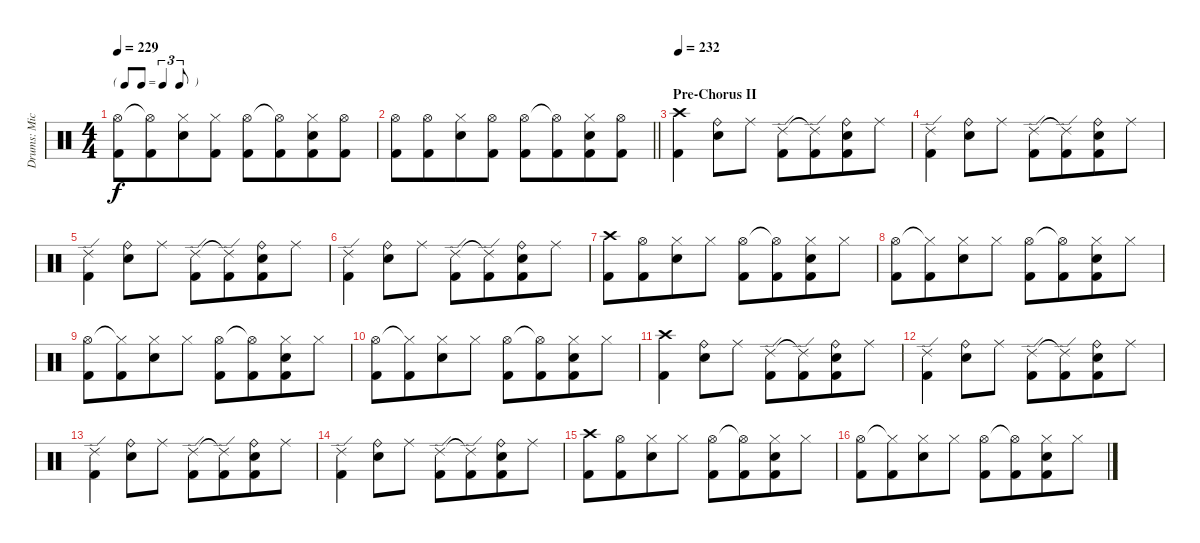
\track ("Drums: Mick" "Drums: Mic") {instrument percussion}
\staff {score}
\articulation defaults
\ts (4 4)
\tf triplet8th
\tempo 229
\clef neutral
\ks c
("Hi-Hat (open)" "Kick (hit) 2").8{dy f} ("Hi-Hat (open)"{t} "Kick (hit) 2").8{beam merge} ("Hi-Hat (closed)" "Snare (hit) 2").8 ("Hi-Hat (closed)" "Kick (hit) 2").8 ("Hi-Hat (open)" "Kick (hit) 2").8 ("Hi-Hat (open)"{t} "Kick (hit) 2").8{beam merge} ("Hi-Hat (closed)" "Snare (hit) 2" "Kick (hit) 2").8 ("Hi-Hat (open)" "Kick (hit) 2").8 |
\barLineRight lightlight
("Hi-Hat (open)" "Kick (hit) 2").8 ("Hi-Hat (open)" "Kick (hit) 2").8{beam merge} ("Hi-Hat (closed)" "Snare (hit) 2").8 ("Hi-Hat (open)" "Kick (hit) 2").8 ("Hi-Hat (open)" "Kick (hit) 2").8 ("Hi-Hat (open)"{t} "Kick (hit) 2").8{beam merge} ("Hi-Hat (closed)" "Snare (hit) 2" "Kick (hit) 2").8 ("Hi-Hat (open)" "Kick (hit) 2").8 |
\section ("" "Pre-Chorus II")
\tempo 232
("Crash high (hit)" "Kick (hit) 2").4{beam merge} ("Ride (bell)" "Snare (hit) 2").8 "Ride (middle)".8 ("Ride (edge) 2" "Kick (hit) 2").8 ("Ride (edge) 2"{t} "Kick (hit) 2").8{beam merge} ("Ride (bell)" "Snare (hit) 2" "Kick (hit) 2").8 "Ride (middle)".8 |
("Ride (edge) 2" "Kick (hit) 2").4{beam merge} ("Ride (bell)" "Snare (hit) 2").8 "Ride (middle)".8 ("Ride (edge) 2" "Kick (hit) 2").8 ("Ride (edge) 2"{t} "Kick (hit) 2").8{beam merge} ("Ride (bell)" "Snare (hit) 2" "Kick (hit) 2").8 "Ride (middle)".8 |
("Ride (edge) 2" "Kick (hit) 2").4{beam merge} ("Ride (bell)" "Snare (hit) 2").8 "Ride (middle)".8 ("Ride (edge) 2" "Kick (hit) 2").8 ("Ride (edge) 2"{t} "Kick (hit) 2").8{beam merge} ("Ride (bell)" "Snare (hit) 2" "Kick (hit) 2").8 "Ride (middle)".8 |
("Ride (edge) 2" "Kick (hit) 2").4{beam merge} ("Ride (bell)" "Snare (hit) 2").8 "Ride (middle)".8 ("Ride (edge) 2" "Kick (hit) 2").8 ("Ride (edge) 2"{t} "Kick (hit) 2").8{beam merge} ("Ride (bell)" "Snare (hit) 2" "Kick (hit) 2").8 "Ride (middle)".8 |
("Crash high (hit)" "Kick (hit) 2").8 ("Hi-Hat (open)" "Kick (hit) 2").8{beam merge} ("Hi-Hat (closed)" "Snare (hit) 2").8 "Hi-Hat (closed)".8 ("Hi-Hat (open)" "Kick (hit) 2").8 ("Hi-Hat (open)"{t} "Kick (hit) 2").8{beam merge} ("Hi-Hat (closed)" "Snare (hit) 2" "Kick (hit) 2").8 "Hi-Hat (closed)".8 |
("Hi-Hat (open)" "Kick (hit) 2").8 ("Hi-Hat (closed)"{t} "Kick (hit) 2").8{beam merge} ("Hi-Hat (closed)" "Snare (hit) 2").8 "Hi-Hat (closed)".8 ("Hi-Hat (open)" "Kick (hit) 2").8 ("Hi-Hat (open)"{t} "Kick (hit) 2").8{beam merge} ("Hi-Hat (closed)" "Snare (hit) 2" "Kick (hit) 2").8 "Hi-Hat (closed)".8 |
("Hi-Hat (open)" "Kick (hit) 2").8 ("Hi-Hat (closed)"{t} "Kick (hit) 2").8{beam merge} ("Hi-Hat (closed)" "Snare (hit) 2").8 "Hi-Hat (closed)".8 ("Hi-Hat (open)" "Kick (hit) 2").8 ("Hi-Hat (open)"{t} "Kick (hit) 2").8{beam merge} ("Hi-Hat (closed)" "Snare (hit) 2" "Kick (hit) 2").8 "Hi-Hat (closed)".8 |
("Hi-Hat (open)" "Kick (hit) 2").8 ("Hi-Hat (closed)"{t} "Kick (hit) 2").8{beam merge} ("Hi-Hat (closed)" "Snare (hit) 2").8 "Hi-Hat (closed)".8 ("Hi-Hat (open)" "Kick (hit) 2").8 ("Hi-Hat (open)"{t} "Kick (hit) 2").8{beam merge} ("Hi-Hat (closed)" "Snare (hit) 2" "Kick (hit) 2").8 "Hi-Hat (closed)".8 |
("Crash high (hit)" "Kick (hit) 2").4{beam merge} ("Ride (bell)" "Snare (hit) 2").8 "Ride (middle)".8 ("Ride (edge) 2" "Kick (hit) 2").8 ("Ride (edge) 2"{t} "Kick (hit) 2").8{beam merge} ("Ride (bell)" "Snare (hit) 2" "Kick (hit) 2").8 "Ride (middle)".8 |
("Ride (edge) 2" "Kick (hit) 2").4{beam merge} ("Ride (bell)" "Snare (hit) 2").8 "Ride (middle)".8 ("Ride (edge) 2" "Kick (hit) 2").8 ("Ride (edge) 2"{t} "Kick (hit) 2").8{beam merge} ("Ride (bell)" "Snare (hit) 2" "Kick (hit) 2").8 "Ride (middle)".8 |
("Ride (edge) 2" "Kick (hit) 2").4{beam merge} ("Ride (bell)" "Snare (hit) 2").8 "Ride (middle)".8 ("Ride (edge) 2" "Kick (hit) 2").8 ("Ride (edge) 2"{t} "Kick (hit) 2").8{beam merge} ("Ride (bell)" "Snare (hit) 2" "Kick (hit) 2").8 "Ride (middle)".8 |
("Ride (edge) 2" "Kick (hit) 2").4{beam merge} ("Ride (bell)" "Snare (hit) 2").8 "Ride (middle)".8 ("Ride (edge) 2" "Kick (hit) 2").8 ("Ride (edge) 2"{t} "Kick (hit) 2").8{beam merge} ("Ride (bell)" "Snare (hit) 2" "Kick (hit) 2").8 "Ride (middle)".8 |
("Crash high (hit)" "Kick (hit) 2").8 ("Hi-Hat (open)" "Kick (hit) 2").8{beam merge} ("Hi-Hat (closed)" "Snare (hit) 2").8 "Hi-Hat (closed)".8 ("Hi-Hat (open)" "Kick (hit) 2").8 ("Hi-Hat (open)"{t} "Kick (hit) 2").8{beam merge} ("Hi-Hat (closed)" "Snare (hit) 2" "Kick (hit) 2").8 "Hi-Hat (closed)".8 |
("Hi-Hat (open)" "Kick (hit) 2").8 ("Hi-Hat (closed)"{t} "Kick (hit) 2").8{beam merge} ("Hi-Hat (closed)" "Snare (hit) 2").8 "Hi-Hat (closed)".8 ("Hi-Hat (open)" "Kick (hit) 2").8 ("Hi-Hat (open)"{t} "Kick (hit) 2").8{beam merge} ("Hi-Hat (closed)" "Snare (hit) 2" "Kick (hit) 2").8 "Hi-Hat (closed)".8
